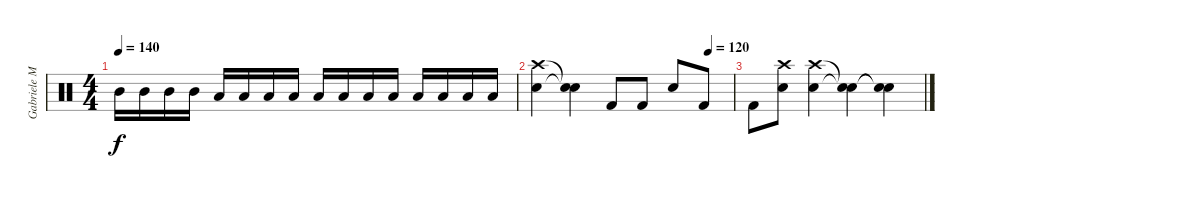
\track ("Gabriele Malatesta" "Gabriele M") {instrument percussion}
\staff {score}
\articulation defaults
\ts (4 4)
\tempo 140
\clef neutral
\ks c "Mid Tom (hit)".16{dy f} "Mid Tom (hit)".16 "Mid Tom (hit)".16 "Mid Tom (hit)".16 "Low Tom (hit)".16 "Low Tom (hit)".16 "Low Tom (hit)".16 "Low Tom (hit)".16 "Low Tom (hit)".16 "Low Tom (hit)".16 "Low Tom (hit)".16 "Low Tom (hit)".16 "Low Tom (hit)".16 "Low Tom (hit)".16 "Low Tom (hit)".16 "Low Tom (hit)".16
|
\tempo (120 0.875)
("Crash high (hit)" "Electric Snare (hit)").4 ("Snare (hit)"{t} "Snare (hit)"{t}).4 "Kick (hit) 2".8 "Kick (hit) 2".8 "Electric Snare (hit)".8 "Kick (hit) 2".8 |
"Kick (hit) 2".8 ("Crash high (hit)" "Electric Snare (hit)").8 ("Crash high (hit)" "Electric Snare (hit)").4 ("Snare (hit)"{t} "Snare (hit)"{t}).4 ("Snare (hit)"{t} "Snare (hit)"{t}).4
